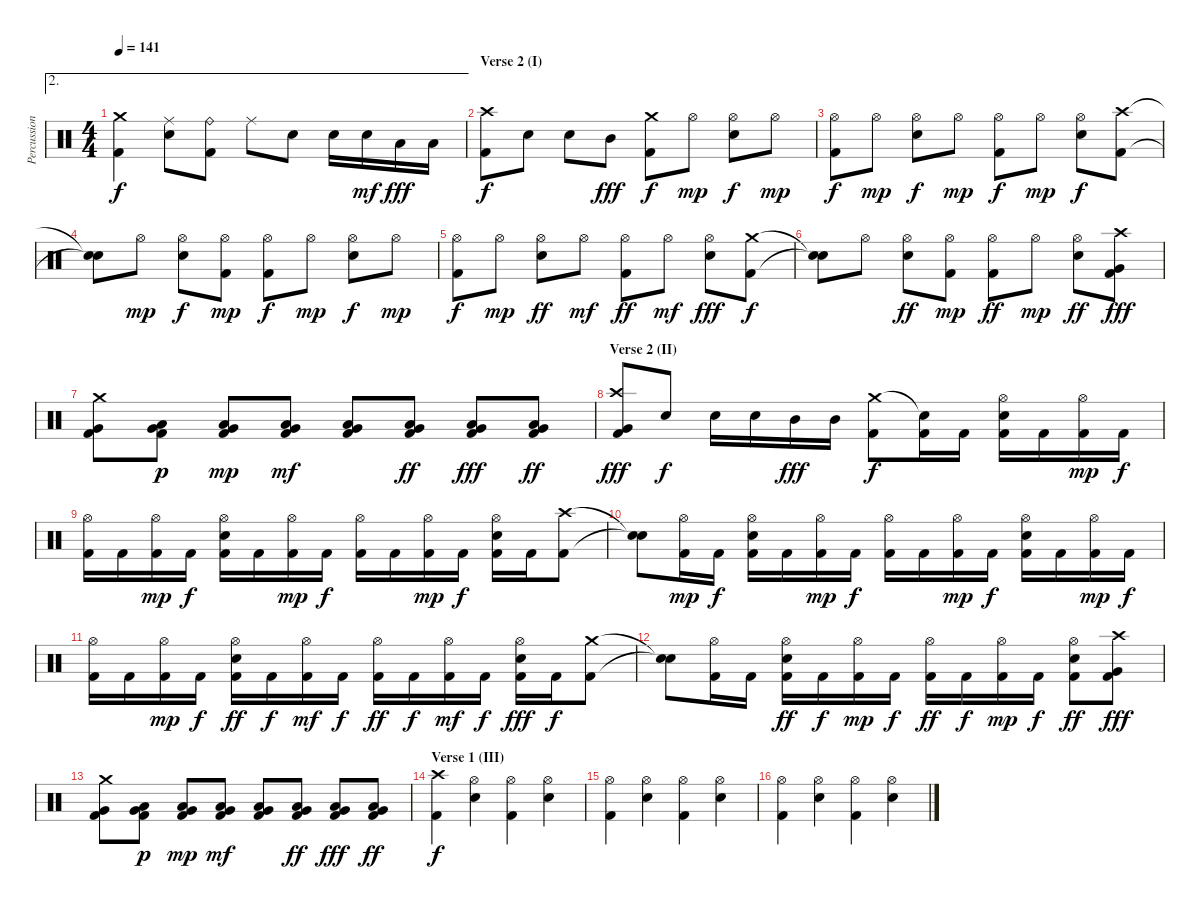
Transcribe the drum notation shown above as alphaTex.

\track ("Percussion" "Percussion") {instrument percussion}
\staff {score}
\articulation defaults
\ae 2
\ts (4 4)
\tempo 141
\clef neutral
\ks c
("Crash medium (hit)" "Kick (hit) 2").4{dy f} ("Ride (middle)" "Snare (hit) 2").8 ("Ride (bell)" "Kick (hit) 2").8 "Ride (middle)".8 "Snare (hit) 2".8 "Snare (hit) 2".16 "Snare (hit) 2".16{dy mf} "Low Tom (hit)".16{dy fff} "Low Tom (hit)".16 |
\section ("" "Verse 2 (I)")
("Crash high (hit)" "Kick (hit) 2").8{dy f} "Snare (hit) 2".8 "Snare (hit) 2".8 "Mid Tom (hit)".8{dy fff} ("Crash medium (hit)" "Kick (hit) 2").8{dy f} "Hi-Hat (open)".8{dy mp} ("Hi-Hat (open)" "Snare (hit) 2").8{dy f} "Hi-Hat (open)".8{dy mp} |
("Hi-Hat (open)" "Kick (hit) 2").8{dy f} "Hi-Hat (open)".8{dy mp} ("Hi-Hat (open)" "Snare (hit) 2").8{dy f} "Hi-Hat (open)".8{dy mp} ("Hi-Hat (open)" "Kick (hit) 2").8{dy f} "Hi-Hat (open)".8{dy mp} ("Hi-Hat (open)" "Snare (hit) 2").8{dy f} ("Crash high (hit)" "Kick (hit) 2").8 |
("Snare (hit)"{t} "Snare (hit)"{t}).8 "Hi-Hat (open)".8{dy mp} ("Hi-Hat (open)" "Snare (hit) 2").8{dy f} ("Hi-Hat (open)" "Kick (hit) 2").8{dy mp} ("Hi-Hat (open)" "Kick (hit) 2").8{dy f} "Hi-Hat (open)".8{dy mp} ("Hi-Hat (open)" "Snare (hit) 2").8{dy f} "Hi-Hat (open)".8{dy mp} |
("Hi-Hat (open)" "Kick (hit) 2").8{dy f} "Hi-Hat (open)".8{dy mp} ("Hi-Hat (open)" "Snare (hit) 2").8{dy ff} "Hi-Hat (open)".8{dy mf} ("Hi-Hat (open)" "Kick (hit) 2").8{dy ff} "Hi-Hat (open)".8{dy mf} ("Hi-Hat (open)" "Snare (hit) 2").8{dy fff} ("Crash medium (hit)" "Kick (hit) 2").8{dy f} |
("Snare (hit)"{t} "Snare (hit)"{t}).8 "Hi-Hat (open)".8 ("Hi-Hat (open)" "Snare (hit) 2").8{dy ff} ("Hi-Hat (open)" "Kick (hit) 2").8{dy mp} ("Hi-Hat (open)" "Kick (hit) 2").8{dy ff} "Hi-Hat (open)".8{dy mp} ("Hi-Hat (open)" "Snare (hit) 2").8{dy ff} ("Crash high (hit)" "Very Low Tom (hit)" "Kick (hit) 2").8{dy fff} |
("Crash medium (hit)" "Very Low Tom (hit)" "Kick (hit) 2").8 ("Low Tom (hit)" "Very Low Tom (hit)" "Kick (hit) 2").8{dy p} ("Low Tom (hit)" "Very Low Tom (hit)" "Kick (hit) 2").8{dy mp} ("Low Tom (hit)" "Very Low Tom (hit)" "Kick (hit) 2").8{dy mf} ("Low Tom (hit)" "Very Low Tom (hit)" "Kick (hit) 2").8 ("Low Tom (hit)" "Very Low Tom (hit)" "Kick (hit) 2").8{dy ff} ("Low Tom (hit)" "Very Low Tom (hit)" "Kick (hit) 2").8{dy fff} ("Low Tom (hit)" "Very Low Tom (hit)" "Kick (hit) 2").8{dy ff} |
\section ("" "Verse 2 (II)")
("Crash high (hit)" "Very Low Tom (hit)" "Kick (hit) 2").8{dy fff} "Snare (hit) 2".8{dy f} "Snare (hit) 2".16 "Snare (hit) 2".16 "Mid Tom (hit)".16{dy fff} "Mid Tom (hit)".16 ("Crash medium (hit)" "Kick (hit) 2").8{dy f} ("Snare (hit)"{t} "Kick (hit) 2").16 "Kick (hit) 2".16 ("Hi-Hat (open)" "Snare (hit) 2" "Kick (hit) 2").16 "Kick (hit) 2".16 ("Hi-Hat (open)" "Kick (hit) 2").16{dy mp} "Kick (hit) 2".16{dy f} |
("Hi-Hat (open)" "Kick (hit) 2").16 "Kick (hit) 2".16 ("Hi-Hat (open)" "Kick (hit) 2").16{dy mp} "Kick (hit) 2".16{dy f} ("Hi-Hat (open)" "Snare (hit) 2" "Kick (hit) 2").16 "Kick (hit) 2".16 ("Hi-Hat (open)" "Kick (hit) 2").16{dy mp} "Kick (hit) 2".16{dy f} ("Hi-Hat (open)" "Kick (hit) 2").16 "Kick (hit) 2".16 ("Hi-Hat (open)" "Kick (hit) 2").16{dy mp} "Kick (hit) 2".16{dy f} ("Hi-Hat (open)" "Snare (hit) 2" "Kick (hit) 2").16 "Kick (hit) 2".16 ("Crash high (hit)" "Kick (hit) 2").8 |
("Snare (hit)"{t} "Snare (hit)"{t}).8 ("Hi-Hat (open)" "Kick (hit) 2").16{dy mp} "Kick (hit) 2".16{dy f} ("Hi-Hat (open)" "Snare (hit) 2" "Kick (hit) 2").16 "Kick (hit) 2".16 ("Hi-Hat (open)" "Kick (hit) 2").16{dy mp} "Kick (hit) 2".16{dy f} ("Hi-Hat (open)" "Kick (hit) 2").16 "Kick (hit) 2".16 ("Hi-Hat (open)" "Kick (hit) 2").16{dy mp} "Kick (hit) 2".16{dy f} ("Hi-Hat (open)" "Snare (hit) 2" "Kick (hit) 2").16 "Kick (hit) 2".16 ("Hi-Hat (open)" "Kick (hit) 2").16{dy mp} "Kick (hit) 2".16{dy f} |
("Hi-Hat (open)" "Kick (hit) 2").16 "Kick (hit) 2".16 ("Hi-Hat (open)" "Kick (hit) 2").16{dy mp} "Kick (hit) 2".16{dy f} ("Hi-Hat (open)" "Snare (hit) 2" "Kick (hit) 2").16{dy ff} "Kick (hit) 2".16{dy f} ("Hi-Hat (open)" "Kick (hit) 2").16{dy mf} "Kick (hit) 2".16{dy f} ("Hi-Hat (open)" "Kick (hit) 2").16{dy ff} "Kick (hit) 2".16{dy f} ("Hi-Hat (open)" "Kick (hit) 2").16{dy mf} "Kick (hit) 2".16{dy f} ("Hi-Hat (open)" "Snare (hit) 2" "Kick (hit) 2").16{dy fff} "Kick (hit) 2".16{dy f} ("Crash medium (hit)" "Kick (hit) 2").8 |
("Snare (hit)"{t} "Snare (hit)"{t}).8 ("Hi-Hat (open)" "Kick (hit) 2").16 "Kick (hit) 2".16 ("Hi-Hat (open)" "Snare (hit) 2" "Kick (hit) 2").16{dy ff} "Kick (hit) 2".16{dy f} ("Hi-Hat (open)" "Kick (hit) 2").16{dy mp} "Kick (hit) 2".16{dy f} ("Hi-Hat (open)" "Kick (hit) 2").16{dy ff} "Kick (hit) 2".16{dy f} ("Hi-Hat (open)" "Kick (hit) 2").16{dy mp} "Kick (hit) 2".16{dy f} ("Hi-Hat (open)" "Snare (hit) 2" "Kick (hit) 2").8{dy ff} ("Crash high (hit)" "Very Low Tom (hit)" "Kick (hit) 2").8{dy fff} |
("Crash medium (hit)" "Very Low Tom (hit)" "Kick (hit) 2").8 ("Low Tom (hit)" "Very Low Tom (hit)" "Kick (hit) 2").8{dy p} ("Low Tom (hit)" "Very Low Tom (hit)" "Kick (hit) 2").8{dy mp} ("Low Tom (hit)" "Very Low Tom (hit)" "Kick (hit) 2").8{dy mf} ("Low Tom (hit)" "Very Low Tom (hit)" "Kick (hit) 2").8 ("Low Tom (hit)" "Very Low Tom (hit)" "Kick (hit) 2").8{dy ff} ("Low Tom (hit)" "Very Low Tom (hit)" "Kick (hit) 2").8{dy fff} ("Low Tom (hit)" "Very Low Tom (hit)" "Kick (hit) 2").8{dy ff} |
\section ("" "Verse 1 (III)")
("Crash high (hit)" "Kick (hit) 2").4{dy f} ("Hi-Hat (open)" "Snare (hit) 2").4 ("Hi-Hat (open)" "Kick (hit) 2").4 ("Hi-Hat (open)" "Snare (hit) 2").4 |
("Hi-Hat (open)" "Kick (hit) 2").4 ("Hi-Hat (open)" "Snare (hit) 2").4 ("Hi-Hat (open)" "Kick (hit) 2").4 ("Hi-Hat (open)" "Snare (hit) 2").4 |
("Hi-Hat (open)" "Kick (hit) 2").4 ("Hi-Hat (open)" "Snare (hit) 2").4 ("Hi-Hat (open)" "Kick (hit) 2").4 ("Hi-Hat (open)" "Snare (hit) 2").4
